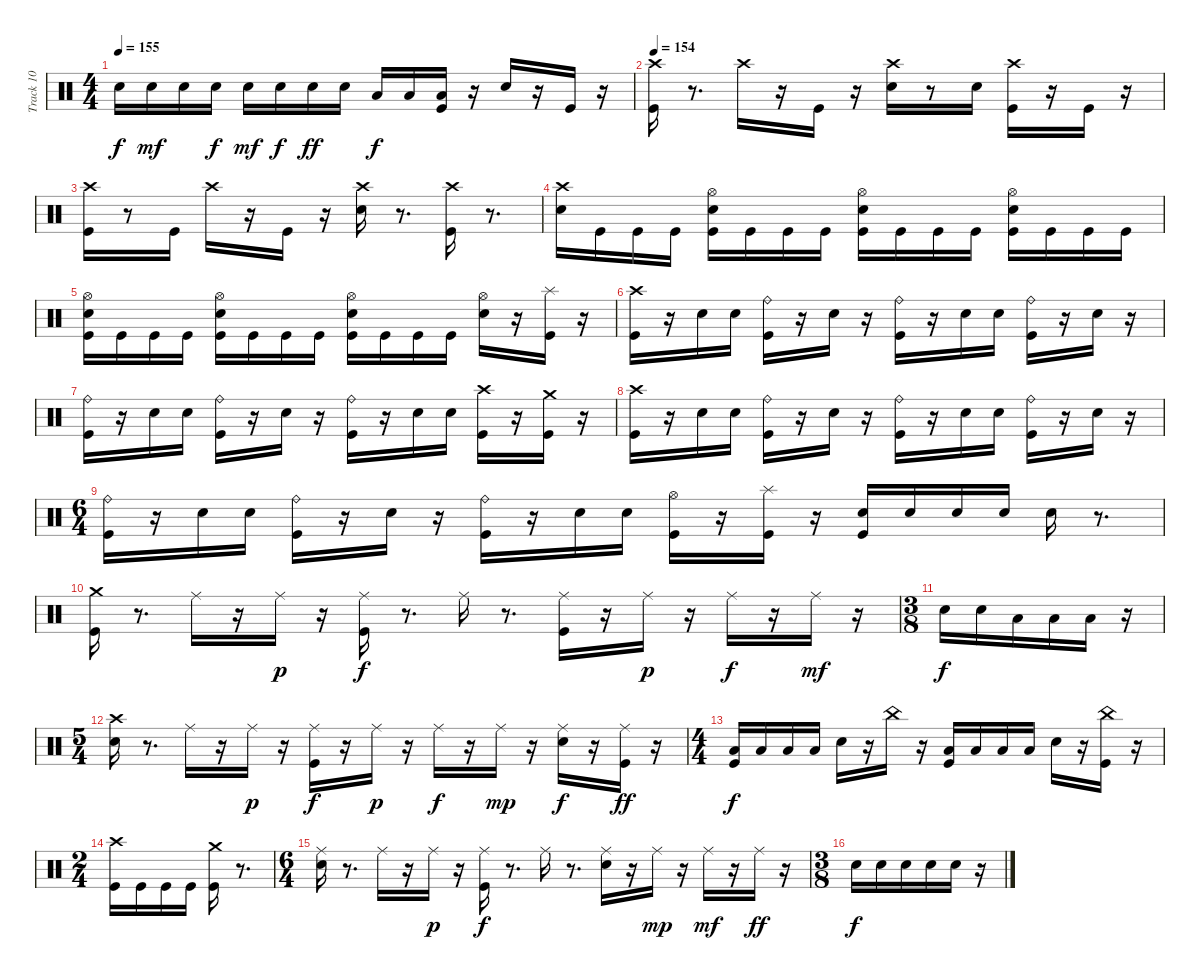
\track ("Track 10" "Track 10") {instrument percussion}
\staff {score}
\articulation defaults
\ts (4 4)
\tempo 155
\clef neutral
\ks c "Snare (hit) 2".16{dy f} "Snare (hit) 2".16{dy mf} "Snare (hit) 2".16 "Snare (hit) 2".16{dy f} "Snare (hit) 2".16{dy mf} "Snare (hit) 2".16{dy f} "Snare (hit) 2".16{dy ff} "Snare (hit) 2".16 "Low Floor Tom (hit)".16{dy f} "Low Floor Tom (hit)".16
("Kick (hit)" "Low Floor Tom (hit)").16 r.16 "Snare (hit) 2".16 r.16 "Kick (hit)".16 r.16 |
\tempo 154
("Kick (hit)" "Crash high (hit)").16 r.8{d} "Crash high (hit)".16 r.16 "Kick (hit)".16 r.16 ("Snare (hit) 2" "Crash high (hit)").16 r.8 "Snare (hit) 2".16 ("Kick (hit)" "Crash high (hit)").16 r.16 "Kick (hit)".16 r.16 |
("Kick (hit)" "Crash high (hit)").16 r.8 "Kick (hit)".16 "Crash high (hit)".16 r.16 "Kick (hit)".16 r.16 ("Snare (hit) 2" "Crash high (hit)").16 r.8{d} ("Kick (hit)" "Crash high (hit)").16 r.8{d} |
("Snare (hit) 2" "Crash high (hit)").16 "Kick (hit)".16 "Kick (hit)".16 "Kick (hit)".16 ("Kick (hit)" "Snare (hit) 2" "Hi-Hat (open)").16 "Kick (hit)".16 "Kick (hit)".16 "Kick (hit)".16 ("Kick (hit)" "Snare (hit) 2" "Hi-Hat (open)").16 "Kick (hit)".16 "Kick (hit)".16 "Kick (hit)".16 ("Kick (hit)" "Snare (hit) 2" "Hi-Hat (open)").16 "Kick (hit)".16 "Kick (hit)".16 "Kick (hit)".16 |
("Kick (hit)" "Snare (hit) 2" "Hi-Hat (open)").16 "Kick (hit)".16 "Kick (hit)".16 "Kick (hit)".16 ("Kick (hit)" "Snare (hit) 2" "Hi-Hat (open)").16 "Kick (hit)".16 "Kick (hit)".16 "Kick (hit)".16 ("Kick (hit)" "Snare (hit) 2" "Hi-Hat (open)").16 "Kick (hit)".16 "Kick (hit)".16 "Kick (hit)".16 ("Snare (hit) 2" "Hi-Hat (open)").16 r.16 ("Kick (hit)" "Splash (hit)").16 r.16 |
("Kick (hit)" "Crash high (hit)").16 r.16 "Snare (hit) 2".16 "Snare (hit) 2".16 ("Kick (hit)" "Ride (bell)").16 r.16 "Snare (hit) 2".16 r.16 ("Kick (hit)" "Ride (bell)").16 r.16 "Snare (hit) 2".16 "Snare (hit) 2".16 ("Kick (hit)" "Ride (bell)").16 r.16 "Snare (hit) 2".16 r.16 |
("Kick (hit)" "Ride (bell)").16 r.16 "Snare (hit) 2".16 "Snare (hit) 2".16 ("Kick (hit)" "Ride (bell)").16 r.16 "Snare (hit) 2".16 r.16 ("Kick (hit)" "Ride (bell)").16 r.16 "Snare (hit) 2".16 "Snare (hit) 2".16 ("Kick (hit)" "Crash high (hit)").16 r.16 ("Kick (hit)" "Crash medium (hit)").16 r.16 |
("Kick (hit)" "Crash high (hit)").16 r.16 "Snare (hit) 2".16 "Snare (hit) 2".16 ("Kick (hit)" "Ride (bell)").16 r.16 "Snare (hit) 2".16 r.16 ("Kick (hit)" "Ride (bell)").16 r.16 "Snare (hit) 2".16 "Snare (hit) 2".16 ("Kick (hit)" "Ride (bell)").16 r.16 "Snare (hit) 2".16 r.16 |
\ts (6 4)
("Kick (hit)" "Ride (bell)").16 r.16 "Snare (hit) 2".16 "Snare (hit) 2".16 ("Kick (hit)" "Ride (bell)").16 r.16 "Snare (hit) 2".16 r.16 ("Kick (hit)" "Ride (bell)").16 r.16 "Snare (hit) 2".16 "Snare (hit) 2".16 ("Kick (hit)" "Hi-Hat (open)").16 r.16 ("Kick (hit)" "Splash (hit)").16 r.16 ("Kick (hit)" "Snare (hit) 2").16 "Snare (hit) 2".16 "Snare (hit) 2".16 "Snare (hit) 2".16 "Snare (hit) 2".16 r.8{d} |
("Kick (hit)" "Crash medium (hit)").16 r.8{d} "Ride (middle)".16 r.16 "Ride (middle)".16{dy p} r.16 ("Kick (hit)" "Ride (middle)").16{dy f} r.8{d} "Ride (middle)".16 r.8{d} ("Kick (hit)" "Ride (middle)").16 r.16 "Ride (middle)".16{dy p} r.16 "Ride (middle)".16{dy f} r.16 "Ride (middle)".16{dy mf} r.16 |
\ts (3 8)
"Snare (hit) 2".16{dy f} "Snare (hit) 2".16 "Low Floor Tom (hit)".16 "Low Floor Tom (hit)".16 "Low Floor Tom (hit)".16 r.16 |
\ts (5 4)
("Snare (hit) 2" "Crash high (hit)").16 r.8{d} "Ride (middle)".16 r.16 "Ride (middle)".16{dy p} r.16 ("Kick (hit)" "Ride (middle)").16{dy f} r.16 "Ride (middle)".16{dy p} r.16 "Ride (middle)".16{dy f} r.16 "Ride (middle)".16{dy mp} r.16 ("Snare (hit) 2" "Ride (middle)").16{dy f} r.16 ("Kick (hit)" "Ride (middle)").16{dy ff} r.16 |
\ts (4 4)
("Kick (hit)" "Low Floor Tom (hit)").16{dy f} "Low Floor Tom (hit)".16 "Low Floor Tom (hit)".16 "Low Floor Tom (hit)".16 "Snare (hit) 2".16 r.16 "China (hit)".16 r.16 ("Kick (hit)" "Low Floor Tom (hit)").16 "Low Floor Tom (hit)".16 "Low Floor Tom (hit)".16 "Low Floor Tom (hit)".16 "Snare (hit) 2".16 r.16 ("Kick (hit)" "China (hit)").16 r.16 |
\ts (2 4)
("Kick (hit)" "Crash high (hit)").16 "Kick (hit)".16 "Kick (hit)".16 "Kick (hit)".16 ("Kick (hit)" "Crash medium (hit)").16 r.8{d} |
\ts (6 4)
("Snare (hit) 2" "Ride (middle)").16 r.8{d} "Ride (middle)".16 r.16 "Ride (middle)".16{dy p} r.16 ("Kick (hit)" "Ride (middle)").16{dy f} r.8{d} "Ride (middle)".16 r.8{d} ("Snare (hit) 2" "Ride (middle)").16 r.16 "Ride (middle)".16{dy mp} r.16 "Ride (middle)".16{dy mf} r.16 "Ride (middle)".16{dy ff} r.16 |
\ts (3 8)
"Snare (hit) 2".16{dy f} "Snare (hit) 2".16 "Snare (hit) 2".16 "Snare (hit) 2".16 "Snare (hit) 2".16 r.16
